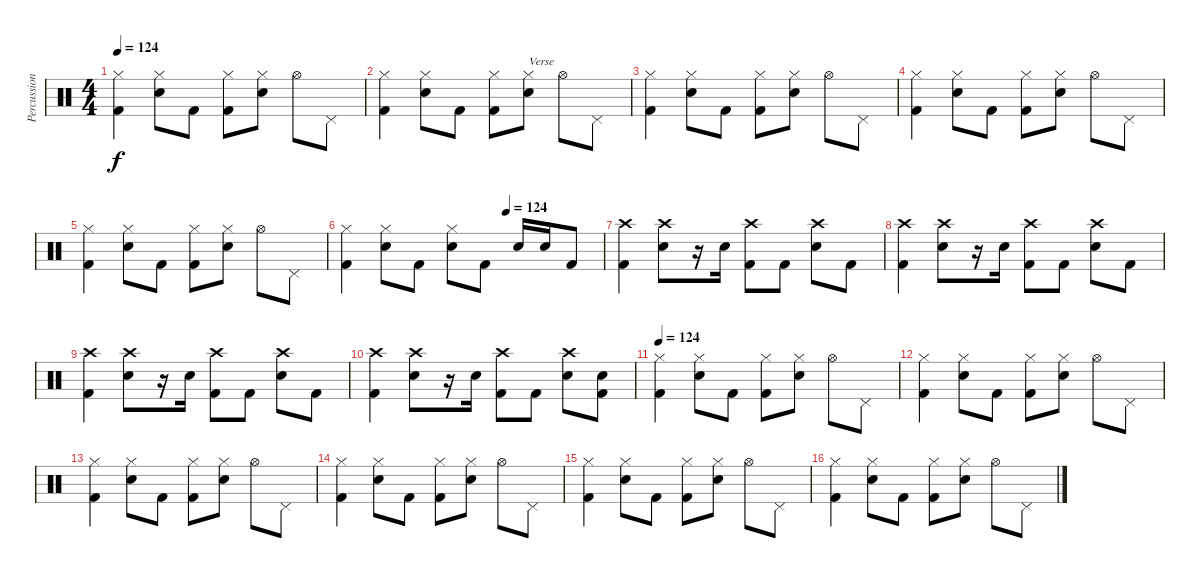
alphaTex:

\track ("Percussion" "Percussion") {instrument percussion}
\staff {score}
\articulation defaults
\ts (4 4)
\tempo 124
\clef neutral
\ks c
("Hi-Hat (closed)" "Kick (hit) 2").4{dy f} ("Hi-Hat (closed)" "Electric Snare (hit)").8 "Kick (hit) 2".8 ("Hi-Hat (closed)" "Kick (hit) 2").8 ("Hi-Hat (closed)" "Electric Snare (hit)").8 "Hi-Hat (open)".8 "Pedal Hi-Hat (hit)".8 |
("Hi-Hat (closed)" "Kick (hit) 2").4 ("Hi-Hat (closed)" "Electric Snare (hit)").8 "Kick (hit) 2".8 ("Hi-Hat (closed)" "Kick (hit) 2").8 ("Hi-Hat (closed)" "Electric Snare (hit)").8{txt "Verse"} "Hi-Hat (open)".8 "Pedal Hi-Hat (hit)".8 |
("Hi-Hat (closed)" "Kick (hit) 2").4 ("Hi-Hat (closed)" "Electric Snare (hit)").8 "Kick (hit) 2".8 ("Hi-Hat (closed)" "Kick (hit) 2").8 ("Hi-Hat (closed)" "Electric Snare (hit)").8 "Hi-Hat (open)".8 "Pedal Hi-Hat (hit)".8 |
("Hi-Hat (closed)" "Kick (hit) 2").4 ("Hi-Hat (closed)" "Electric Snare (hit)").8 "Kick (hit) 2".8 ("Hi-Hat (closed)" "Kick (hit) 2").8 ("Hi-Hat (closed)" "Electric Snare (hit)").8 "Hi-Hat (open)".8 "Pedal Hi-Hat (hit)".8 |
("Hi-Hat (closed)" "Kick (hit) 2").4 ("Hi-Hat (closed)" "Electric Snare (hit)").8 "Kick (hit) 2".8 ("Hi-Hat (closed)" "Kick (hit) 2").8 ("Hi-Hat (closed)" "Electric Snare (hit)").8 "Hi-Hat (open)".8 "Pedal Hi-Hat (hit)".8 |
\tempo (124 0.625)
("Hi-Hat (closed)" "Kick (hit) 2").4 ("Hi-Hat (closed)" "Electric Snare (hit)").8 "Kick (hit) 2".8 ("Hi-Hat (closed)" "Electric Snare (hit)").8 "Kick (hit) 2".8 "Electric Snare (hit)".16 "Electric Snare (hit)".16 "Kick (hit) 2".8 |
("Crash high (hit)" "Kick (hit) 2").4 ("Crash high (hit)" "Electric Snare (hit)").8 r.16 "Electric Snare (hit)".16 ("Crash high (hit)" "Kick (hit) 2").8 "Kick (hit) 2".8 ("Crash high (hit)" "Electric Snare (hit)").8 "Kick (hit) 2".8 |
("Crash high (hit)" "Kick (hit) 2").4 ("Crash high (hit)" "Electric Snare (hit)").8 r.16 "Electric Snare (hit)".16 ("Crash high (hit)" "Kick (hit) 2").8 "Kick (hit) 2".8 ("Crash high (hit)" "Electric Snare (hit)").8 "Kick (hit) 2".8 |
("Crash high (hit)" "Kick (hit) 2").4 ("Crash high (hit)" "Electric Snare (hit)").8 r.16 "Electric Snare (hit)".16 ("Crash high (hit)" "Kick (hit) 2").8 "Kick (hit) 2".8 ("Crash high (hit)" "Electric Snare (hit)").8 "Kick (hit) 2".8 |
("Crash high (hit)" "Kick (hit) 2").4 ("Crash high (hit)" "Electric Snare (hit)").8 r.16 "Electric Snare (hit)".16 ("Crash high (hit)" "Kick (hit) 2").8 "Kick (hit) 2".8 ("Crash high (hit)" "Electric Snare (hit)").8 ("Electric Snare (hit)" "Kick (hit) 2").8 |
\tempo 124
("Hi-Hat (closed)" "Kick (hit) 2").4 ("Hi-Hat (closed)" "Electric Snare (hit)").8 "Kick (hit) 2".8 ("Hi-Hat (closed)" "Kick (hit) 2").8 ("Hi-Hat (closed)" "Electric Snare (hit)").8 "Hi-Hat (open)".8 "Pedal Hi-Hat (hit)".8 |
("Hi-Hat (closed)" "Kick (hit) 2").4 ("Hi-Hat (closed)" "Electric Snare (hit)").8 "Kick (hit) 2".8 ("Hi-Hat (closed)" "Kick (hit) 2").8 ("Hi-Hat (closed)" "Electric Snare (hit)").8 "Hi-Hat (open)".8 "Pedal Hi-Hat (hit)".8 |
("Hi-Hat (closed)" "Kick (hit) 2").4 ("Hi-Hat (closed)" "Electric Snare (hit)").8 "Kick (hit) 2".8 ("Hi-Hat (closed)" "Kick (hit) 2").8 ("Hi-Hat (closed)" "Electric Snare (hit)").8 "Hi-Hat (open)".8 "Pedal Hi-Hat (hit)".8 |
("Hi-Hat (closed)" "Kick (hit) 2").4 ("Hi-Hat (closed)" "Electric Snare (hit)").8 "Kick (hit) 2".8 ("Hi-Hat (closed)" "Kick (hit) 2").8 ("Hi-Hat (closed)" "Electric Snare (hit)").8 "Hi-Hat (open)".8 "Pedal Hi-Hat (hit)".8 |
("Hi-Hat (closed)" "Kick (hit) 2").4 ("Hi-Hat (closed)" "Electric Snare (hit)").8 "Kick (hit) 2".8 ("Hi-Hat (closed)" "Kick (hit) 2").8 ("Hi-Hat (closed)" "Electric Snare (hit)").8 "Hi-Hat (open)".8 "Pedal Hi-Hat (hit)".8 |
("Hi-Hat (closed)" "Kick (hit) 2").4 ("Hi-Hat (closed)" "Electric Snare (hit)").8 "Kick (hit) 2".8 ("Hi-Hat (closed)" "Kick (hit) 2").8 ("Hi-Hat (closed)" "Electric Snare (hit)").8 "Hi-Hat (open)".8 "Pedal Hi-Hat (hit)".8
